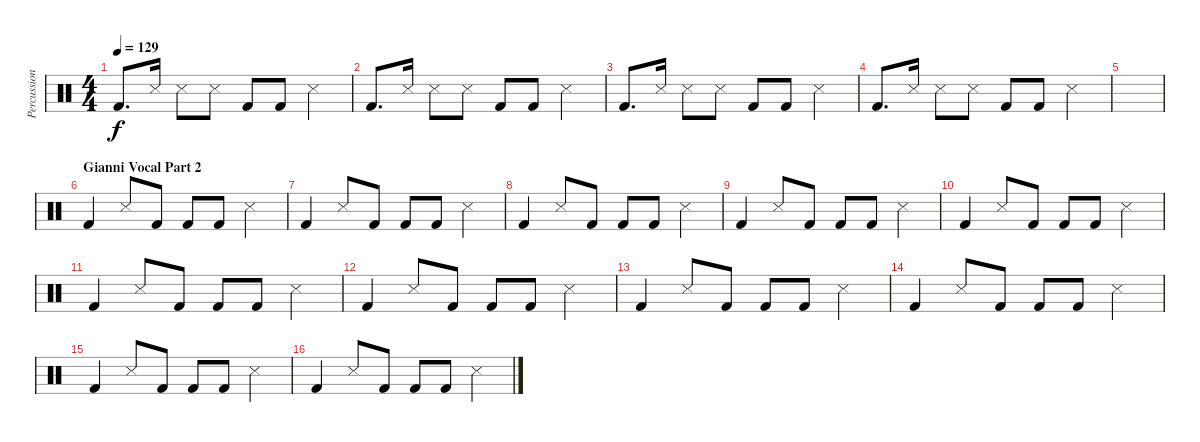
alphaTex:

\track ("Percussion (Joel)" "Percussion") {instrument percussion}
\staff {score}
\articulation defaults
\ts (4 4)
\tempo 129
\clef neutral
\ks c "Kick (hit) 2".8{d dy f} "Snare (side stick) 3".16 "Snare (side stick) 3".8 "Snare (side stick) 3".8 "Kick (hit) 2".8 "Kick (hit) 2".8 "Snare (side stick) 3".4
|
"Kick (hit) 2".8{d} "Snare (side stick) 3".16 "Snare (side stick) 3".8 "Snare (side stick) 3".8 "Kick (hit) 2".8 "Kick (hit) 2".8 "Snare (side stick) 3".4 |
"Kick (hit) 2".8{d} "Snare (side stick) 3".16 "Snare (side stick) 3".8 "Snare (side stick) 3".8 "Kick (hit) 2".8 "Kick (hit) 2".8 "Snare (side stick) 3".4 |
"Kick (hit) 2".8{d} "Snare (side stick) 3".16 "Snare (side stick) 3".8 "Snare (side stick) 3".8 "Kick (hit) 2".8 "Kick (hit) 2".8 "Snare (side stick) 3".4 |
|
\section ("" "Gianni Vocal Part 2")
"Kick (hit) 2".4 "Snare (side stick) 3".8 "Kick (hit) 2".8 "Kick (hit) 2".8 "Kick (hit) 2".8 "Snare (side stick) 3".4 |
"Kick (hit) 2".4 "Snare (side stick) 3".8 "Kick (hit) 2".8 "Kick (hit) 2".8 "Kick (hit) 2".8 "Snare (side stick) 3".4 |
"Kick (hit) 2".4 "Snare (side stick) 3".8 "Kick (hit) 2".8 "Kick (hit) 2".8 "Kick (hit) 2".8 "Snare (side stick) 3".4 |
"Kick (hit) 2".4 "Snare (side stick) 3".8 "Kick (hit) 2".8 "Kick (hit) 2".8 "Kick (hit) 2".8 "Snare (side stick) 3".4 |
"Kick (hit) 2".4 "Snare (side stick) 3".8 "Kick (hit) 2".8 "Kick (hit) 2".8 "Kick (hit) 2".8 "Snare (side stick) 3".4 |
"Kick (hit) 2".4 "Snare (side stick) 3".8 "Kick (hit) 2".8 "Kick (hit) 2".8 "Kick (hit) 2".8 "Snare (side stick) 3".4 |
"Kick (hit) 2".4 "Snare (side stick) 3".8 "Kick (hit) 2".8 "Kick (hit) 2".8 "Kick (hit) 2".8 "Snare (side stick) 3".4 |
"Kick (hit) 2".4 "Snare (side stick) 3".8 "Kick (hit) 2".8 "Kick (hit) 2".8 "Kick (hit) 2".8 "Snare (side stick) 3".4 |
"Kick (hit) 2".4 "Snare (side stick) 3".8 "Kick (hit) 2".8 "Kick (hit) 2".8 "Kick (hit) 2".8 "Snare (side stick) 3".4 |
"Kick (hit) 2".4 "Snare (side stick) 3".8 "Kick (hit) 2".8 "Kick (hit) 2".8 "Kick (hit) 2".8 "Snare (side stick) 3".4 |
"Kick (hit) 2".4 "Snare (side stick) 3".8 "Kick (hit) 2".8 "Kick (hit) 2".8 "Kick (hit) 2".8 "Snare (side stick) 3".4
